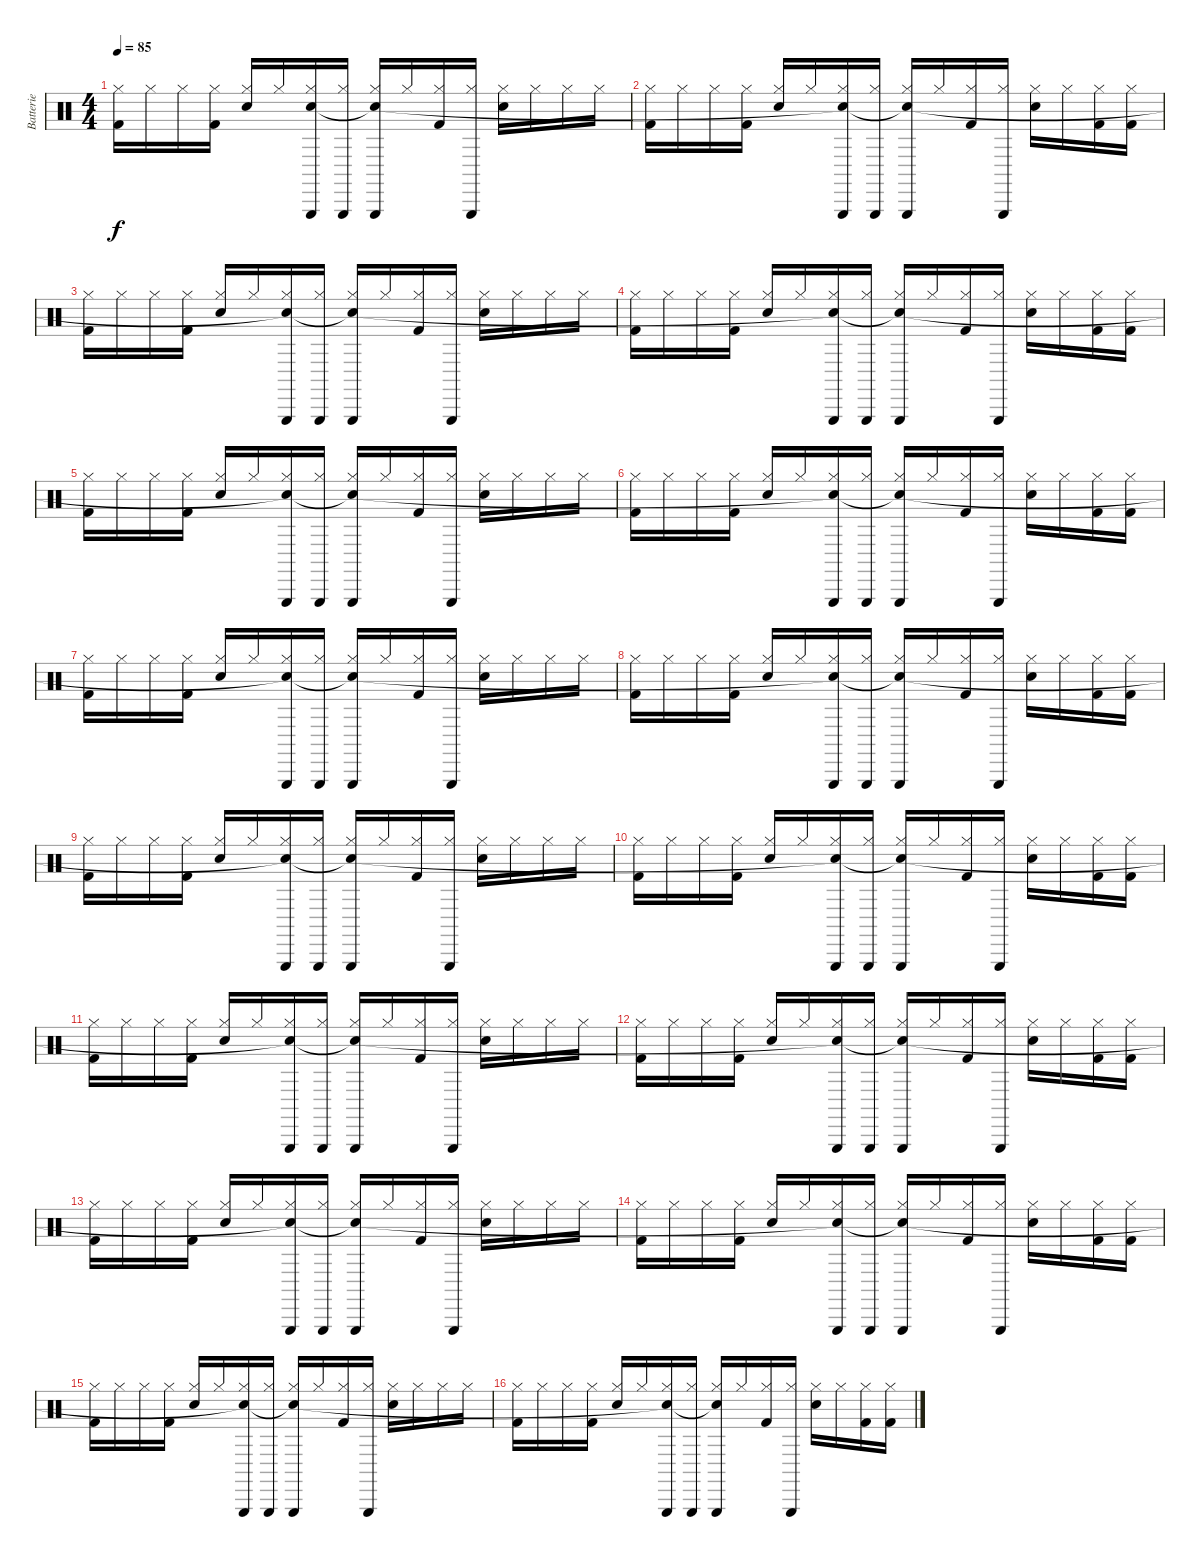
\track ("Batterie" "Batterie") {instrument percussion}
\staff {score}
\articulation defaults
\ts (4 4)
\tempo 85
\clef neutral
\ks c
("Hi-Hat (closed)" "Kick (hit) 2").16{dy f} "Hi-Hat (closed)".16 "Hi-Hat (closed)".16 ("Hi-Hat (closed)" "Kick (hit) 2").16 ("Hi-Hat (closed)" "Hand Clap (hit)").16 "Hi-Hat (closed)".16 ("Hi-Hat (closed)" "Triangle (hit)" "Snare (hit)"{t}).16 ("Hi-Hat (closed)" "Triangle (hit)").16 ("Hi-Hat (closed)" "Triangle (hit)" "Snare (hit)"{t}).16 "Hi-Hat (closed)".16 ("Hi-Hat (closed)" "Kick (hit) 2").16 ("Hi-Hat (closed)" "Triangle (hit)").16 ("Hi-Hat (closed)" "Hand Clap (hit)").16 "Hi-Hat (closed)".16 "Hi-Hat (closed)".16 "Hi-Hat (closed)".16 |
("Hi-Hat (closed)" "Kick (hit) 2").16 "Hi-Hat (closed)".16 "Hi-Hat (closed)".16 ("Hi-Hat (closed)" "Kick (hit) 2").16 ("Hi-Hat (closed)" "Hand Clap (hit)").16 "Hi-Hat (closed)".16 ("Hi-Hat (closed)" "Triangle (hit)" "Snare (hit)"{t}).16 ("Hi-Hat (closed)" "Triangle (hit)").16 ("Hi-Hat (closed)" "Triangle (hit)" "Snare (hit)"{t}).16 "Hi-Hat (closed)".16 ("Hi-Hat (closed)" "Kick (hit) 2").16 ("Hi-Hat (closed)" "Triangle (hit)").16 ("Hi-Hat (closed)" "Hand Clap (hit)").16 "Hi-Hat (closed)".16 ("Hi-Hat (closed)" "Kick (hit) 2").16 ("Hi-Hat (closed)" "Kick (hit) 2").16 |
("Hi-Hat (closed)" "Kick (hit) 2").16 "Hi-Hat (closed)".16 "Hi-Hat (closed)".16 ("Hi-Hat (closed)" "Kick (hit) 2").16 ("Hi-Hat (closed)" "Hand Clap (hit)").16 "Hi-Hat (closed)".16 ("Hi-Hat (closed)" "Triangle (hit)" "Snare (hit)"{t}).16 ("Hi-Hat (closed)" "Triangle (hit)").16 ("Hi-Hat (closed)" "Triangle (hit)" "Snare (hit)"{t}).16 "Hi-Hat (closed)".16 ("Hi-Hat (closed)" "Kick (hit) 2").16 ("Hi-Hat (closed)" "Triangle (hit)").16 ("Hi-Hat (closed)" "Hand Clap (hit)").16 "Hi-Hat (closed)".16 "Hi-Hat (closed)".16 "Hi-Hat (closed)".16 |
("Hi-Hat (closed)" "Kick (hit) 2").16 "Hi-Hat (closed)".16 "Hi-Hat (closed)".16 ("Hi-Hat (closed)" "Kick (hit) 2").16 ("Hi-Hat (closed)" "Hand Clap (hit)").16 "Hi-Hat (closed)".16 ("Hi-Hat (closed)" "Triangle (hit)" "Snare (hit)"{t}).16 ("Hi-Hat (closed)" "Triangle (hit)").16 ("Hi-Hat (closed)" "Triangle (hit)" "Snare (hit)"{t}).16 "Hi-Hat (closed)".16 ("Hi-Hat (closed)" "Kick (hit) 2").16 ("Hi-Hat (closed)" "Triangle (hit)").16 ("Hi-Hat (closed)" "Hand Clap (hit)").16 "Hi-Hat (closed)".16 ("Hi-Hat (closed)" "Kick (hit) 2").16 ("Hi-Hat (closed)" "Kick (hit) 2").16 |
("Hi-Hat (closed)" "Kick (hit) 2").16 "Hi-Hat (closed)".16 "Hi-Hat (closed)".16 ("Hi-Hat (closed)" "Kick (hit) 2").16 ("Hi-Hat (closed)" "Hand Clap (hit)").16 "Hi-Hat (closed)".16 ("Hi-Hat (closed)" "Triangle (hit)" "Snare (hit)"{t}).16 ("Hi-Hat (closed)" "Triangle (hit)").16 ("Hi-Hat (closed)" "Triangle (hit)" "Snare (hit)"{t}).16 "Hi-Hat (closed)".16 ("Hi-Hat (closed)" "Kick (hit) 2").16 ("Hi-Hat (closed)" "Triangle (hit)").16 ("Hi-Hat (closed)" "Hand Clap (hit)").16 "Hi-Hat (closed)".16 "Hi-Hat (closed)".16 "Hi-Hat (closed)".16 |
("Hi-Hat (closed)" "Kick (hit) 2").16 "Hi-Hat (closed)".16 "Hi-Hat (closed)".16 ("Hi-Hat (closed)" "Kick (hit) 2").16 ("Hi-Hat (closed)" "Hand Clap (hit)").16 "Hi-Hat (closed)".16 ("Hi-Hat (closed)" "Triangle (hit)" "Snare (hit)"{t}).16 ("Hi-Hat (closed)" "Triangle (hit)").16 ("Hi-Hat (closed)" "Triangle (hit)" "Snare (hit)"{t}).16 "Hi-Hat (closed)".16 ("Hi-Hat (closed)" "Kick (hit) 2").16 ("Hi-Hat (closed)" "Triangle (hit)").16 ("Hi-Hat (closed)" "Hand Clap (hit)").16 "Hi-Hat (closed)".16 ("Hi-Hat (closed)" "Kick (hit) 2").16 ("Hi-Hat (closed)" "Kick (hit) 2").16 |
("Hi-Hat (closed)" "Kick (hit) 2").16 "Hi-Hat (closed)".16 "Hi-Hat (closed)".16 ("Hi-Hat (closed)" "Kick (hit) 2").16 ("Hi-Hat (closed)" "Hand Clap (hit)").16 "Hi-Hat (closed)".16 ("Hi-Hat (closed)" "Triangle (hit)" "Snare (hit)"{t}).16 ("Hi-Hat (closed)" "Triangle (hit)").16 ("Hi-Hat (closed)" "Triangle (hit)" "Snare (hit)"{t}).16 "Hi-Hat (closed)".16 ("Hi-Hat (closed)" "Kick (hit) 2").16 ("Hi-Hat (closed)" "Triangle (hit)").16 ("Hi-Hat (closed)" "Hand Clap (hit)").16 "Hi-Hat (closed)".16 "Hi-Hat (closed)".16 "Hi-Hat (closed)".16 |
("Hi-Hat (closed)" "Kick (hit) 2").16 "Hi-Hat (closed)".16 "Hi-Hat (closed)".16 ("Hi-Hat (closed)" "Kick (hit) 2").16 ("Hi-Hat (closed)" "Hand Clap (hit)").16 "Hi-Hat (closed)".16 ("Hi-Hat (closed)" "Triangle (hit)" "Snare (hit)"{t}).16 ("Hi-Hat (closed)" "Triangle (hit)").16 ("Hi-Hat (closed)" "Triangle (hit)" "Snare (hit)"{t}).16 "Hi-Hat (closed)".16 ("Hi-Hat (closed)" "Kick (hit) 2").16 ("Hi-Hat (closed)" "Triangle (hit)").16 ("Hi-Hat (closed)" "Hand Clap (hit)").16 "Hi-Hat (closed)".16 ("Hi-Hat (closed)" "Kick (hit) 2").16 ("Hi-Hat (closed)" "Kick (hit) 2").16 |
("Hi-Hat (closed)" "Kick (hit) 2").16 "Hi-Hat (closed)".16 "Hi-Hat (closed)".16 ("Hi-Hat (closed)" "Kick (hit) 2").16 ("Hi-Hat (closed)" "Hand Clap (hit)").16 "Hi-Hat (closed)".16 ("Hi-Hat (closed)" "Triangle (hit)" "Snare (hit)"{t}).16 ("Hi-Hat (closed)" "Triangle (hit)").16 ("Hi-Hat (closed)" "Triangle (hit)" "Snare (hit)"{t}).16 "Hi-Hat (closed)".16 ("Hi-Hat (closed)" "Kick (hit) 2").16 ("Hi-Hat (closed)" "Triangle (hit)").16 ("Hi-Hat (closed)" "Hand Clap (hit)").16 "Hi-Hat (closed)".16 "Hi-Hat (closed)".16 "Hi-Hat (closed)".16 |
("Hi-Hat (closed)" "Kick (hit) 2").16 "Hi-Hat (closed)".16 "Hi-Hat (closed)".16 ("Hi-Hat (closed)" "Kick (hit) 2").16 ("Hi-Hat (closed)" "Hand Clap (hit)").16 "Hi-Hat (closed)".16 ("Hi-Hat (closed)" "Triangle (hit)" "Snare (hit)"{t}).16 ("Hi-Hat (closed)" "Triangle (hit)").16 ("Hi-Hat (closed)" "Triangle (hit)" "Snare (hit)"{t}).16 "Hi-Hat (closed)".16 ("Hi-Hat (closed)" "Kick (hit) 2").16 ("Hi-Hat (closed)" "Triangle (hit)").16 ("Hi-Hat (closed)" "Hand Clap (hit)").16 "Hi-Hat (closed)".16 ("Hi-Hat (closed)" "Kick (hit) 2").16 ("Hi-Hat (closed)" "Kick (hit) 2").16 |
("Hi-Hat (closed)" "Kick (hit) 2").16 "Hi-Hat (closed)".16 "Hi-Hat (closed)".16 ("Hi-Hat (closed)" "Kick (hit) 2").16 ("Hi-Hat (closed)" "Hand Clap (hit)").16 "Hi-Hat (closed)".16 ("Hi-Hat (closed)" "Triangle (hit)" "Snare (hit)"{t}).16 ("Hi-Hat (closed)" "Triangle (hit)").16 ("Hi-Hat (closed)" "Triangle (hit)" "Snare (hit)"{t}).16 "Hi-Hat (closed)".16 ("Hi-Hat (closed)" "Kick (hit) 2").16 ("Hi-Hat (closed)" "Triangle (hit)").16 ("Hi-Hat (closed)" "Hand Clap (hit)").16 "Hi-Hat (closed)".16 "Hi-Hat (closed)".16 "Hi-Hat (closed)".16 |
("Hi-Hat (closed)" "Kick (hit) 2").16 "Hi-Hat (closed)".16 "Hi-Hat (closed)".16 ("Hi-Hat (closed)" "Kick (hit) 2").16 ("Hi-Hat (closed)" "Hand Clap (hit)").16 "Hi-Hat (closed)".16 ("Hi-Hat (closed)" "Triangle (hit)" "Snare (hit)"{t}).16 ("Hi-Hat (closed)" "Triangle (hit)").16 ("Hi-Hat (closed)" "Triangle (hit)" "Snare (hit)"{t}).16 "Hi-Hat (closed)".16 ("Hi-Hat (closed)" "Kick (hit) 2").16 ("Hi-Hat (closed)" "Triangle (hit)").16 ("Hi-Hat (closed)" "Hand Clap (hit)").16 "Hi-Hat (closed)".16 ("Hi-Hat (closed)" "Kick (hit) 2").16 ("Hi-Hat (closed)" "Kick (hit) 2").16 |
("Hi-Hat (closed)" "Kick (hit) 2").16 "Hi-Hat (closed)".16 "Hi-Hat (closed)".16 ("Hi-Hat (closed)" "Kick (hit) 2").16 ("Hi-Hat (closed)" "Hand Clap (hit)").16 "Hi-Hat (closed)".16 ("Hi-Hat (closed)" "Triangle (hit)" "Snare (hit)"{t}).16 ("Hi-Hat (closed)" "Triangle (hit)").16 ("Hi-Hat (closed)" "Triangle (hit)" "Snare (hit)"{t}).16 "Hi-Hat (closed)".16 ("Hi-Hat (closed)" "Kick (hit) 2").16 ("Hi-Hat (closed)" "Triangle (hit)").16 ("Hi-Hat (closed)" "Hand Clap (hit)").16 "Hi-Hat (closed)".16 "Hi-Hat (closed)".16 "Hi-Hat (closed)".16 |
("Hi-Hat (closed)" "Kick (hit) 2").16 "Hi-Hat (closed)".16 "Hi-Hat (closed)".16 ("Hi-Hat (closed)" "Kick (hit) 2").16 ("Hi-Hat (closed)" "Hand Clap (hit)").16 "Hi-Hat (closed)".16 ("Hi-Hat (closed)" "Triangle (hit)" "Snare (hit)"{t}).16 ("Hi-Hat (closed)" "Triangle (hit)").16 ("Hi-Hat (closed)" "Triangle (hit)" "Snare (hit)"{t}).16 "Hi-Hat (closed)".16 ("Hi-Hat (closed)" "Kick (hit) 2").16 ("Hi-Hat (closed)" "Triangle (hit)").16 ("Hi-Hat (closed)" "Hand Clap (hit)").16 "Hi-Hat (closed)".16 ("Hi-Hat (closed)" "Kick (hit) 2").16 ("Hi-Hat (closed)" "Kick (hit) 2").16 |
("Hi-Hat (closed)" "Kick (hit) 2").16 "Hi-Hat (closed)".16 "Hi-Hat (closed)".16 ("Hi-Hat (closed)" "Kick (hit) 2").16 ("Hi-Hat (closed)" "Hand Clap (hit)").16 "Hi-Hat (closed)".16 ("Hi-Hat (closed)" "Triangle (hit)" "Snare (hit)"{t}).16 ("Hi-Hat (closed)" "Triangle (hit)").16 ("Hi-Hat (closed)" "Triangle (hit)" "Snare (hit)"{t}).16 "Hi-Hat (closed)".16 ("Hi-Hat (closed)" "Kick (hit) 2").16 ("Hi-Hat (closed)" "Triangle (hit)").16 ("Hi-Hat (closed)" "Hand Clap (hit)").16 "Hi-Hat (closed)".16 "Hi-Hat (closed)".16 "Hi-Hat (closed)".16 |
("Hi-Hat (closed)" "Kick (hit) 2").16 "Hi-Hat (closed)".16 "Hi-Hat (closed)".16 ("Hi-Hat (closed)" "Kick (hit) 2").16 ("Hi-Hat (closed)" "Hand Clap (hit)").16 "Hi-Hat (closed)".16 ("Hi-Hat (closed)" "Triangle (hit)" "Snare (hit)"{t}).16 ("Hi-Hat (closed)" "Triangle (hit)").16 ("Hi-Hat (closed)" "Triangle (hit)" "Snare (hit)"{t}).16 "Hi-Hat (closed)".16 ("Hi-Hat (closed)" "Kick (hit) 2").16 ("Hi-Hat (closed)" "Triangle (hit)").16 ("Hi-Hat (closed)" "Hand Clap (hit)").16 "Hi-Hat (closed)".16 ("Hi-Hat (closed)" "Kick (hit) 2").16 ("Hi-Hat (closed)" "Kick (hit) 2").16
